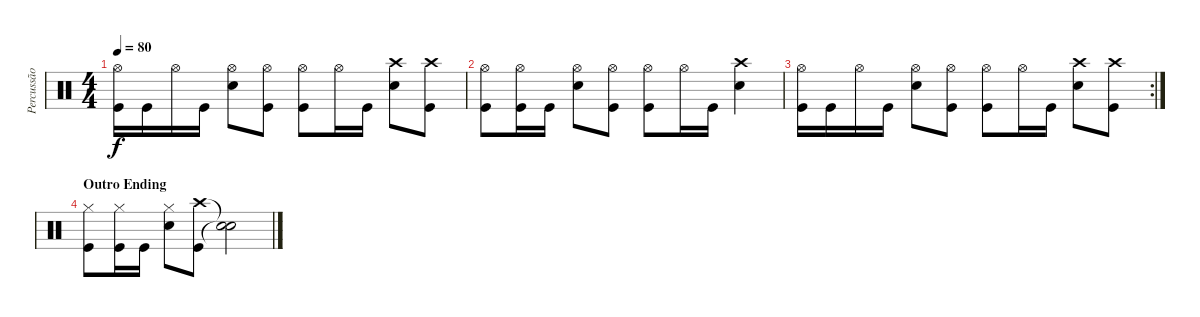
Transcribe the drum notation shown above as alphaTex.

\track ("Percussão" "Percussão") {instrument percussion}
\staff {score}
\articulation defaults
\ts (4 4)
\tempo 80
\clef neutral
\ks c
("Hi-Hat (open)" "Kick (hit)").16{dy f} "Kick (hit)".16 "Hi-Hat (open)".16 "Kick (hit)".16 ("Hi-Hat (open)" "Snare (hit) 2").8 ("Hi-Hat (open)" "Kick (hit)").8 ("Hi-Hat (open)" "Kick (hit)").8 "Hi-Hat (open)".16 "Kick (hit)".16 ("Crash high (hit)" "Snare (hit) 2").8 ("Crash high (hit)" "Kick (hit)").8 |
("Hi-Hat (open)" "Kick (hit)").8 ("Hi-Hat (open)" "Kick (hit)").16 "Kick (hit)".16 ("Hi-Hat (open)" "Snare (hit) 2").8 ("Hi-Hat (open)" "Kick (hit)").8 ("Hi-Hat (open)" "Kick (hit)").8 "Hi-Hat (open)".16 "Kick (hit)".16 ("Crash high (hit)" "Snare (hit) 2").4 |
\rc 2
("Hi-Hat (open)" "Kick (hit)").16 "Kick (hit)".16 "Hi-Hat (open)".16 "Kick (hit)".16 ("Hi-Hat (open)" "Snare (hit) 2").8 ("Hi-Hat (open)" "Kick (hit)").8 ("Hi-Hat (open)" "Kick (hit)").8 "Hi-Hat (open)".16 "Kick (hit)".16 ("Crash high (hit)" "Snare (hit) 2").8 ("Crash high (hit)" "Kick (hit)").8 |
\section ("" "Outro Ending")
("Hi-Hat (closed)" "Kick (hit)").8 ("Hi-Hat (closed)" "Kick (hit)").16 "Kick (hit)".16 ("Hi-Hat (closed)" "Snare (hit) 2").8 ("Crash high (hit)" "Kick (hit)").8 ("Snare (hit)"{t} "Snare (hit)"{t}).2
